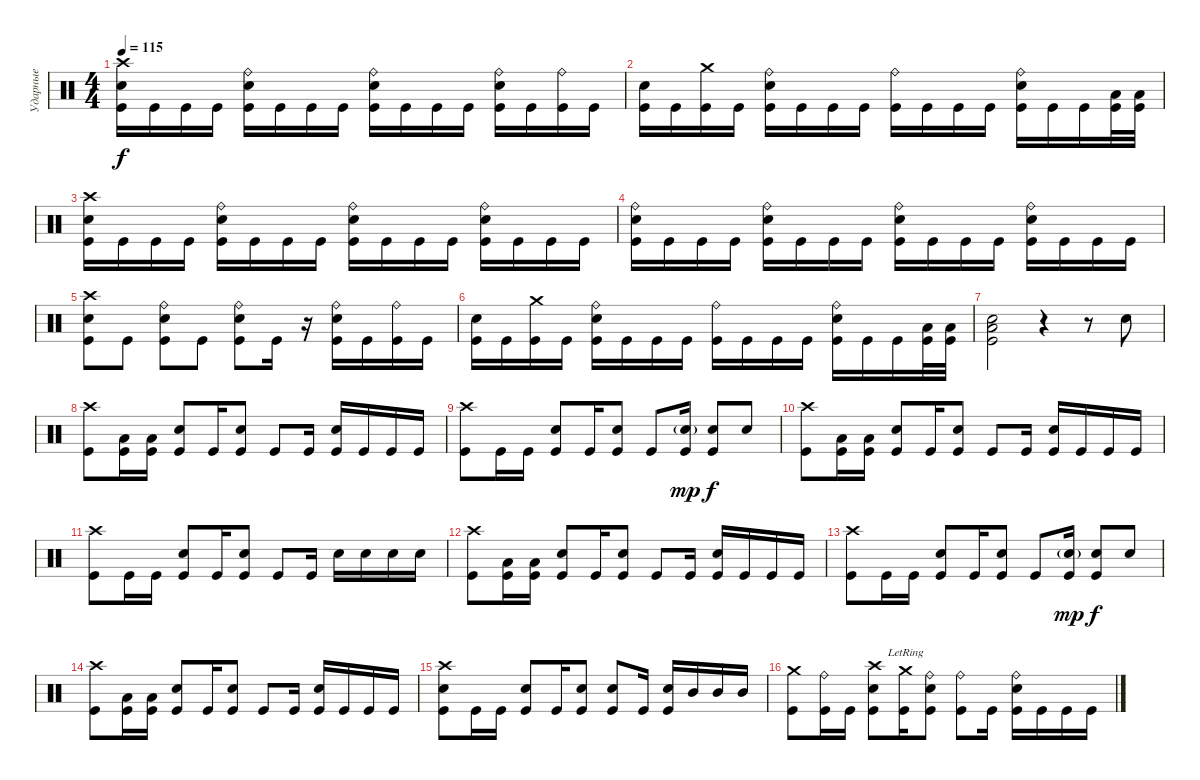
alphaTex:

\track ("Ударные" "Ударные") {instrument percussion}
\staff {score}
\articulation defaults
\ts (4 4)
\tempo 115
\clef neutral
\ks c
("Crash high (hit)" "Electric Snare (hit)" "Kick (hit)").16{dy f} "Kick (hit)".16 "Kick (hit)".16 "Kick (hit)".16 ("Ride (bell)" "Electric Snare (hit)" "Kick (hit)").16 "Kick (hit)".16 "Kick (hit)".16 "Kick (hit)".16 ("Ride (bell)" "Electric Snare (hit)" "Kick (hit)").16 "Kick (hit)".16 "Kick (hit)".16 "Kick (hit)".16 ("Ride (bell)" "Electric Snare (hit)" "Kick (hit)").16 "Kick (hit)".16 ("Ride (bell)" "Kick (hit)").16 "Kick (hit)".16 |
("Electric Snare (hit)" "Kick (hit)").16 "Kick (hit)".16 ("Crash medium (hit)" "Kick (hit)").16 "Kick (hit)".16 ("Ride (bell)" "Electric Snare (hit)" "Kick (hit)").16 "Kick (hit)".16 "Kick (hit)".16 "Kick (hit)".16 ("Ride (bell)" "Kick (hit)").16 "Kick (hit)".16 "Kick (hit)".16 "Kick (hit)".16 ("Ride (bell)" "Electric Snare (hit)" "Kick (hit)").16 "Kick (hit)".16 "Kick (hit)".16 ("Low Tom (hit)" "Kick (hit)").32 ("Low Tom (hit)" "Kick (hit)").32 |
("Crash high (hit)" "Electric Snare (hit)" "Kick (hit)").16 "Kick (hit)".16 "Kick (hit)".16 "Kick (hit)".16 ("Ride (bell)" "Electric Snare (hit)" "Kick (hit)").16 "Kick (hit)".16 "Kick (hit)".16 "Kick (hit)".16 ("Ride (bell)" "Electric Snare (hit)" "Kick (hit)").16 "Kick (hit)".16 "Kick (hit)".16 "Kick (hit)".16 ("Ride (bell)" "Electric Snare (hit)" "Kick (hit)").16 "Kick (hit)".16 "Kick (hit)".16 "Kick (hit)".16 |
("Ride (bell)" "Electric Snare (hit)" "Kick (hit)").16 "Kick (hit)".16 "Kick (hit)".16 "Kick (hit)".16 ("Ride (bell)" "Electric Snare (hit)" "Kick (hit)").16 "Kick (hit)".16 "Kick (hit)".16 "Kick (hit)".16 ("Ride (bell)" "Electric Snare (hit)" "Kick (hit)").16 "Kick (hit)".16 "Kick (hit)".16 "Kick (hit)".16 ("Ride (bell)" "Electric Snare (hit)" "Kick (hit)").16 "Kick (hit)".16 "Kick (hit)".16 "Kick (hit)".16 |
("Crash high (hit)" "Electric Snare (hit)" "Kick (hit)").8 "Kick (hit)".8 ("Ride (bell)" "Electric Snare (hit)" "Kick (hit)").8 "Kick (hit)".8 ("Ride (bell)" "Electric Snare (hit)" "Kick (hit)").8 "Kick (hit)".16 r.16 ("Ride (bell)" "Electric Snare (hit)" "Kick (hit)").16 "Kick (hit)".16 ("Ride (bell)" "Kick (hit)").16 "Kick (hit)".16 |
("Electric Snare (hit)" "Kick (hit)").16 "Kick (hit)".16 ("Crash medium (hit)" "Kick (hit)").16 "Kick (hit)".16 ("Ride (bell)" "Electric Snare (hit)" "Kick (hit)").16 "Kick (hit)".16 "Kick (hit)".16 "Kick (hit)".16 ("Ride (bell)" "Kick (hit)").16 "Kick (hit)".16 "Kick (hit)".16 "Kick (hit)".16 ("Ride (bell)" "Electric Snare (hit)" "Kick (hit)").16 "Kick (hit)".16 "Kick (hit)".16 ("Low Tom (hit)" "Kick (hit)").32 ("Low Tom (hit)" "Kick (hit)").32 |
("Low Tom (hit)" "Electric Snare (hit)" "Kick (hit)").2 r.4 r.8 "Electric Snare (hit)".8 |
("Crash high (hit)" "Kick (hit)").8 ("Low Tom (hit)" "Kick (hit)").16 ("Low Tom (hit)" "Kick (hit)").16 ("Electric Snare (hit)" "Kick (hit)").8 "Kick (hit)".16 ("Electric Snare (hit)" "Kick (hit)").8 "Kick (hit)".8 "Kick (hit)".16 ("Electric Snare (hit)" "Kick (hit)").16 "Kick (hit)".16 "Kick (hit)".16 "Kick (hit)".16 |
("Crash high (hit)" "Kick (hit)").8 "Kick (hit)".16 "Kick (hit)".16 ("Electric Snare (hit)" "Kick (hit)").8 "Kick (hit)".16 ("Electric Snare (hit)" "Kick (hit)").8 "Kick (hit)".8 ("Electric Snare (hit)"{g} "Kick (hit)").16{dy mp} ("Electric Snare (hit)" "Kick (hit)").8{dy f} "Electric Snare (hit)".8 |
("Crash high (hit)" "Kick (hit)").8 ("Low Tom (hit)" "Kick (hit)").16 ("Low Tom (hit)" "Kick (hit)").16 ("Electric Snare (hit)" "Kick (hit)").8 "Kick (hit)".16 ("Electric Snare (hit)" "Kick (hit)").8 "Kick (hit)".8 "Kick (hit)".16 ("Electric Snare (hit)" "Kick (hit)").16 "Kick (hit)".16 "Kick (hit)".16 "Kick (hit)".16 |
("Crash high (hit)" "Kick (hit)").8 "Kick (hit)".16 "Kick (hit)".16 ("Electric Snare (hit)" "Kick (hit)").8 "Kick (hit)".16 ("Electric Snare (hit)" "Kick (hit)").8 "Kick (hit)".8 "Kick (hit)".16 "Electric Snare (hit)".16 "Electric Snare (hit)".16 "Electric Snare (hit)".16 "Electric Snare (hit)".16 |
("Crash high (hit)" "Kick (hit)").8 ("Low Tom (hit)" "Kick (hit)").16 ("Low Tom (hit)" "Kick (hit)").16 ("Electric Snare (hit)" "Kick (hit)").8 "Kick (hit)".16 ("Electric Snare (hit)" "Kick (hit)").8 "Kick (hit)".8 "Kick (hit)".16 ("Electric Snare (hit)" "Kick (hit)").16 "Kick (hit)".16 "Kick (hit)".16 "Kick (hit)".16 |
("Crash high (hit)" "Kick (hit)").8 "Kick (hit)".16 "Kick (hit)".16 ("Electric Snare (hit)" "Kick (hit)").8 "Kick (hit)".16 ("Electric Snare (hit)" "Kick (hit)").8 "Kick (hit)".8 ("Electric Snare (hit)"{g} "Kick (hit)").16{dy mp} ("Electric Snare (hit)" "Kick (hit)").8{dy f} "Electric Snare (hit)".8 |
("Crash high (hit)" "Kick (hit)").8 ("Low Tom (hit)" "Kick (hit)").16 ("Low Tom (hit)" "Kick (hit)").16 ("Electric Snare (hit)" "Kick (hit)").8 "Kick (hit)".16 ("Electric Snare (hit)" "Kick (hit)").8 "Kick (hit)".8 "Kick (hit)".16 ("Electric Snare (hit)" "Kick (hit)").16 "Kick (hit)".16 "Kick (hit)".16 "Kick (hit)".16 |
("Crash high (hit)" "Electric Snare (hit)" "Kick (hit)").8 "Kick (hit)".16 "Kick (hit)".16 ("Electric Snare (hit)" "Kick (hit)").8 "Kick (hit)".16 ("Electric Snare (hit)" "Kick (hit)").8 ("Electric Snare (hit)" "Kick (hit)").8 "Kick (hit)".16 ("Electric Snare (hit)" "Kick (hit)").16 "Mid Tom (hit)".16 "Mid Tom (hit)".16 "Mid Tom (hit)".16 |
("Crash medium (hit)" "Kick (hit)").8 ("Ride (bell)" "Kick (hit)").16 "Kick (hit)".16 ("Crash high (hit)" "Electric Snare (hit)" "Kick (hit)").8 ("Crash medium (hit)"{lr} "Kick (hit)").16 ("Ride (bell)" "Electric Snare (hit)" "Kick (hit)").8 ("Ride (bell)" "Kick (hit)").8 "Kick (hit)".16 ("Ride (bell)" "Electric Snare (hit)" "Kick (hit)").16 "Kick (hit)".16 "Kick (hit)".16 "Kick (hit)".16
